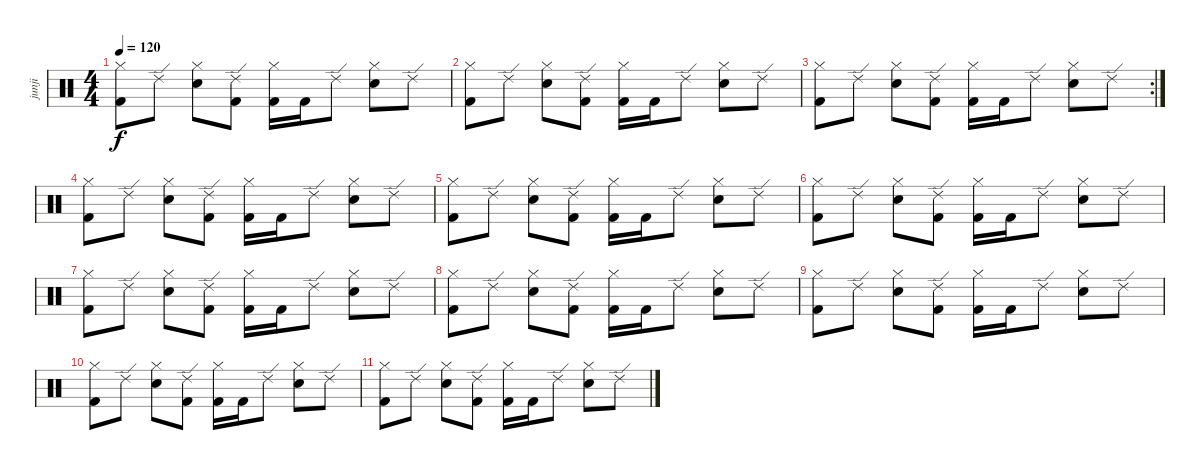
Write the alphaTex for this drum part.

\track ("junji" "junji") {instrument percussion}
\staff {score}
\articulation defaults
\ts (4 4)
\tempo 120
\clef neutral
\ks c
("Hi-Hat (closed)" "Kick (hit) 2").8{dy f} "Ride (edge) 2".8 ("Hi-Hat (closed)" "Snare (hit) 2").8 ("Ride (edge) 2" "Kick (hit) 2").8 ("Hi-Hat (closed)" "Kick (hit) 2"{x}).16 "Kick (hit) 2".16 "Ride (edge) 2".8 ("Hi-Hat (closed)" "Snare (hit) 2").8 "Ride (edge) 2".8 |
("Hi-Hat (closed)" "Kick (hit) 2").8 "Ride (edge) 2".8 ("Hi-Hat (closed)" "Snare (hit) 2").8 ("Ride (edge) 2" "Kick (hit) 2").8 ("Hi-Hat (closed)" "Kick (hit) 2"{x}).16 "Kick (hit) 2".16 "Ride (edge) 2".8 ("Hi-Hat (closed)" "Snare (hit) 2").8 "Ride (edge) 2".8 |
\rc 2
("Hi-Hat (closed)" "Kick (hit) 2").8 "Ride (edge) 2".8 ("Hi-Hat (closed)" "Snare (hit) 2").8 ("Ride (edge) 2" "Kick (hit) 2").8 ("Hi-Hat (closed)" "Kick (hit) 2"{x}).16 "Kick (hit) 2".16 "Ride (edge) 2".8 ("Hi-Hat (closed)" "Snare (hit) 2").8 "Ride (edge) 2".8 |
("Hi-Hat (closed)" "Kick (hit) 2").8 "Ride (edge) 2".8 ("Hi-Hat (closed)" "Snare (hit) 2").8 ("Ride (edge) 2" "Kick (hit) 2").8 ("Hi-Hat (closed)" "Kick (hit) 2"{x}).16 "Kick (hit) 2".16 "Ride (edge) 2".8 ("Hi-Hat (closed)" "Snare (hit) 2").8 "Ride (edge) 2".8 |
("Hi-Hat (closed)" "Kick (hit) 2").8 "Ride (edge) 2".8 ("Hi-Hat (closed)" "Snare (hit) 2").8 ("Ride (edge) 2" "Kick (hit) 2").8 ("Hi-Hat (closed)" "Kick (hit) 2"{x}).16 "Kick (hit) 2".16 "Ride (edge) 2".8 ("Hi-Hat (closed)" "Snare (hit) 2").8 "Ride (edge) 2".8 |
("Hi-Hat (closed)" "Kick (hit) 2").8 "Ride (edge) 2".8 ("Hi-Hat (closed)" "Snare (hit) 2").8 ("Ride (edge) 2" "Kick (hit) 2").8 ("Hi-Hat (closed)" "Kick (hit) 2"{x}).16 "Kick (hit) 2".16 "Ride (edge) 2".8 ("Hi-Hat (closed)" "Snare (hit) 2").8 "Ride (edge) 2".8 |
("Hi-Hat (closed)" "Kick (hit) 2").8 "Ride (edge) 2".8 ("Hi-Hat (closed)" "Snare (hit) 2").8 ("Ride (edge) 2" "Kick (hit) 2").8 ("Hi-Hat (closed)" "Kick (hit) 2"{x}).16 "Kick (hit) 2".16 "Ride (edge) 2".8 ("Hi-Hat (closed)" "Snare (hit) 2").8 "Ride (edge) 2".8 |
("Hi-Hat (closed)" "Kick (hit) 2").8 "Ride (edge) 2".8 ("Hi-Hat (closed)" "Snare (hit) 2").8 ("Ride (edge) 2" "Kick (hit) 2").8 ("Hi-Hat (closed)" "Kick (hit) 2"{x}).16 "Kick (hit) 2".16 "Ride (edge) 2".8 ("Hi-Hat (closed)" "Snare (hit) 2").8 "Ride (edge) 2".8 |
("Hi-Hat (closed)" "Kick (hit) 2").8 "Ride (edge) 2".8 ("Hi-Hat (closed)" "Snare (hit) 2").8 ("Ride (edge) 2" "Kick (hit) 2").8 ("Hi-Hat (closed)" "Kick (hit) 2"{x}).16 "Kick (hit) 2".16 "Ride (edge) 2".8 ("Hi-Hat (closed)" "Snare (hit) 2").8 "Ride (edge) 2".8 |
("Hi-Hat (closed)" "Kick (hit) 2").8 "Ride (edge) 2".8 ("Hi-Hat (closed)" "Snare (hit) 2").8 ("Ride (edge) 2" "Kick (hit) 2").8 ("Hi-Hat (closed)" "Kick (hit) 2"{x}).16 "Kick (hit) 2".16 "Ride (edge) 2".8 ("Hi-Hat (closed)" "Snare (hit) 2").8 "Ride (edge) 2".8 |
("Hi-Hat (closed)" "Kick (hit) 2").8 "Ride (edge) 2".8 ("Hi-Hat (closed)" "Snare (hit) 2").8 ("Ride (edge) 2" "Kick (hit) 2").8 ("Hi-Hat (closed)" "Kick (hit) 2"{x}).16 "Kick (hit) 2".16 "Ride (edge) 2".8 ("Hi-Hat (closed)" "Snare (hit) 2").8 "Ride (edge) 2".8
